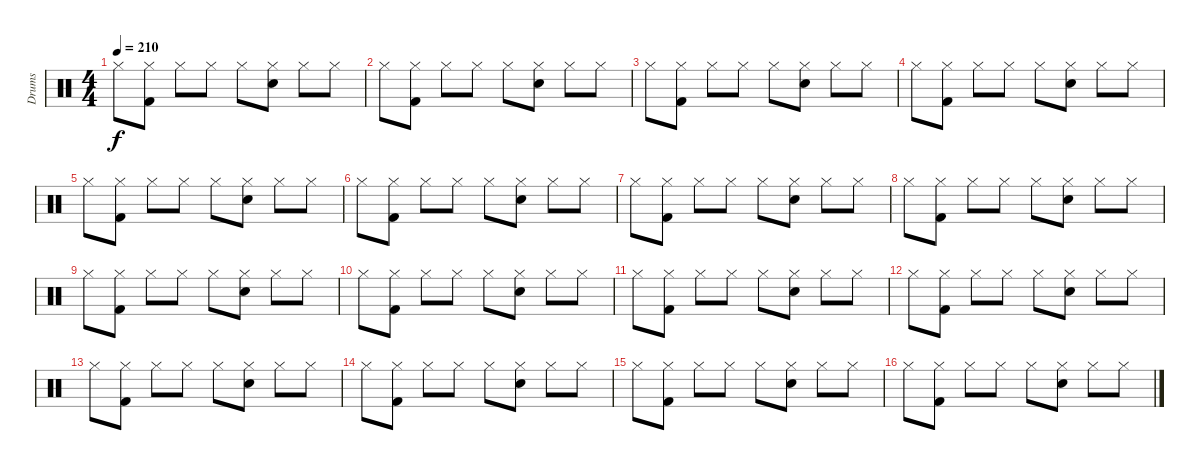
\track ("Drums" "Drums") {instrument percussion}
\staff {score}
\articulation defaults
\ts (4 4)
\tempo 210
\clef neutral
\ks c "Hi-Hat (closed)".8{dy f}
("Hi-Hat (closed)" "Kick (hit) 2").8 "Hi-Hat (closed)".8 "Hi-Hat (closed)".8 "Hi-Hat (closed)".8 ("Hi-Hat (closed)" "Electric Snare (hit)").8 "Hi-Hat (closed)".8 "Hi-Hat (closed)".8 |
"Hi-Hat (closed)".8 ("Hi-Hat (closed)" "Kick (hit) 2").8 "Hi-Hat (closed)".8 "Hi-Hat (closed)".8 "Hi-Hat (closed)".8 ("Hi-Hat (closed)" "Electric Snare (hit)").8 "Hi-Hat (closed)".8 "Hi-Hat (closed)".8 |
"Hi-Hat (closed)".8 ("Hi-Hat (closed)" "Kick (hit) 2").8 "Hi-Hat (closed)".8 "Hi-Hat (closed)".8 "Hi-Hat (closed)".8 ("Hi-Hat (closed)" "Electric Snare (hit)").8 "Hi-Hat (closed)".8 "Hi-Hat (closed)".8 |
"Hi-Hat (closed)".8 ("Hi-Hat (closed)" "Kick (hit) 2").8 "Hi-Hat (closed)".8 "Hi-Hat (closed)".8 "Hi-Hat (closed)".8 ("Hi-Hat (closed)" "Electric Snare (hit)").8 "Hi-Hat (closed)".8 "Hi-Hat (closed)".8 |
"Hi-Hat (closed)".8 ("Hi-Hat (closed)" "Kick (hit) 2").8 "Hi-Hat (closed)".8 "Hi-Hat (closed)".8 "Hi-Hat (closed)".8 ("Hi-Hat (closed)" "Electric Snare (hit)").8 "Hi-Hat (closed)".8 "Hi-Hat (closed)".8 |
"Hi-Hat (closed)".8 ("Hi-Hat (closed)" "Kick (hit) 2").8 "Hi-Hat (closed)".8 "Hi-Hat (closed)".8 "Hi-Hat (closed)".8 ("Hi-Hat (closed)" "Electric Snare (hit)").8 "Hi-Hat (closed)".8 "Hi-Hat (closed)".8 |
"Hi-Hat (closed)".8 ("Hi-Hat (closed)" "Kick (hit) 2").8 "Hi-Hat (closed)".8 "Hi-Hat (closed)".8 "Hi-Hat (closed)".8 ("Hi-Hat (closed)" "Electric Snare (hit)").8 "Hi-Hat (closed)".8 "Hi-Hat (closed)".8 |
"Hi-Hat (closed)".8 ("Hi-Hat (closed)" "Kick (hit) 2").8 "Hi-Hat (closed)".8 "Hi-Hat (closed)".8 "Hi-Hat (closed)".8 ("Hi-Hat (closed)" "Electric Snare (hit)").8 "Hi-Hat (closed)".8 "Hi-Hat (closed)".8 |
"Hi-Hat (closed)".8 ("Hi-Hat (closed)" "Kick (hit) 2").8 "Hi-Hat (closed)".8 "Hi-Hat (closed)".8 "Hi-Hat (closed)".8 ("Hi-Hat (closed)" "Electric Snare (hit)").8 "Hi-Hat (closed)".8 "Hi-Hat (closed)".8 |
"Hi-Hat (closed)".8 ("Hi-Hat (closed)" "Kick (hit) 2").8 "Hi-Hat (closed)".8 "Hi-Hat (closed)".8 "Hi-Hat (closed)".8 ("Hi-Hat (closed)" "Electric Snare (hit)").8 "Hi-Hat (closed)".8 "Hi-Hat (closed)".8 |
"Hi-Hat (closed)".8 ("Hi-Hat (closed)" "Kick (hit) 2").8 "Hi-Hat (closed)".8 "Hi-Hat (closed)".8 "Hi-Hat (closed)".8 ("Hi-Hat (closed)" "Electric Snare (hit)").8 "Hi-Hat (closed)".8 "Hi-Hat (closed)".8 |
"Hi-Hat (closed)".8 ("Hi-Hat (closed)" "Kick (hit) 2").8 "Hi-Hat (closed)".8 "Hi-Hat (closed)".8 "Hi-Hat (closed)".8 ("Hi-Hat (closed)" "Electric Snare (hit)").8 "Hi-Hat (closed)".8 "Hi-Hat (closed)".8 |
"Hi-Hat (closed)".8 ("Hi-Hat (closed)" "Kick (hit) 2").8 "Hi-Hat (closed)".8 "Hi-Hat (closed)".8 "Hi-Hat (closed)".8 ("Hi-Hat (closed)" "Electric Snare (hit)").8 "Hi-Hat (closed)".8 "Hi-Hat (closed)".8 |
"Hi-Hat (closed)".8 ("Hi-Hat (closed)" "Kick (hit) 2").8 "Hi-Hat (closed)".8 "Hi-Hat (closed)".8 "Hi-Hat (closed)".8 ("Hi-Hat (closed)" "Electric Snare (hit)").8 "Hi-Hat (closed)".8 "Hi-Hat (closed)".8 |
"Hi-Hat (closed)".8 ("Hi-Hat (closed)" "Kick (hit) 2").8 "Hi-Hat (closed)".8 "Hi-Hat (closed)".8 "Hi-Hat (closed)".8 ("Hi-Hat (closed)" "Electric Snare (hit)").8 "Hi-Hat (closed)".8 "Hi-Hat (closed)".8 |
"Hi-Hat (closed)".8 ("Hi-Hat (closed)" "Kick (hit) 2").8 "Hi-Hat (closed)".8 "Hi-Hat (closed)".8 "Hi-Hat (closed)".8 ("Hi-Hat (closed)" "Electric Snare (hit)").8 "Hi-Hat (closed)".8 "Hi-Hat (closed)".8
